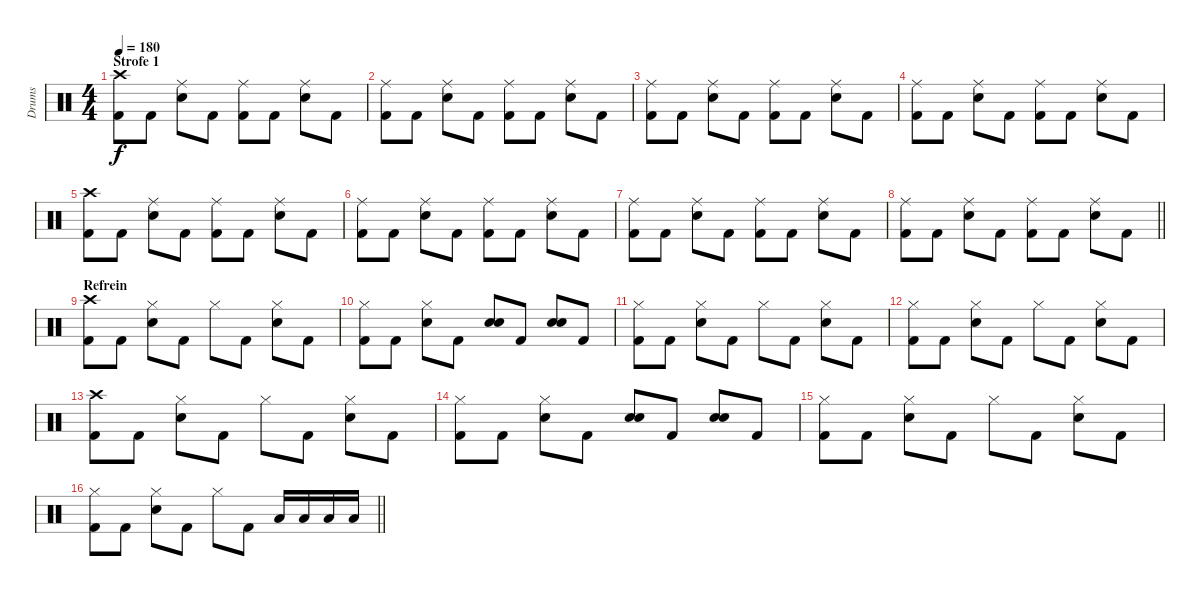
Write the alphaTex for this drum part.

\track ("Drums" "Drums") {instrument percussion}
\staff {score}
\articulation defaults
\ts (4 4)
\section ("" "Strofe 1")
\tempo 180
\clef neutral
\ks c
("Crash high (hit)" "Kick (hit) 2").8{dy f} "Kick (hit) 2".8 ("Ride (middle)" "Snare (hit) 2").8 "Kick (hit) 2".8 ("Ride (middle)" "Kick (hit) 2").8 "Kick (hit) 2".8 ("Ride (middle)" "Snare (hit) 2").8 "Kick (hit) 2".8 |
("Ride (middle)" "Kick (hit) 2").8 "Kick (hit) 2".8 ("Ride (middle)" "Snare (hit) 2").8 "Kick (hit) 2".8 ("Ride (middle)" "Kick (hit) 2").8 "Kick (hit) 2".8 ("Ride (middle)" "Snare (hit) 2").8 "Kick (hit) 2".8 |
("Ride (middle)" "Kick (hit) 2").8 "Kick (hit) 2".8 ("Ride (middle)" "Snare (hit) 2").8 "Kick (hit) 2".8 ("Ride (middle)" "Kick (hit) 2").8 "Kick (hit) 2".8 ("Ride (middle)" "Snare (hit) 2").8 "Kick (hit) 2".8 |
("Ride (middle)" "Kick (hit) 2").8 "Kick (hit) 2".8 ("Ride (middle)" "Snare (hit) 2").8 "Kick (hit) 2".8 ("Ride (middle)" "Kick (hit) 2").8 "Kick (hit) 2".8 ("Ride (middle)" "Snare (hit) 2").8 "Kick (hit) 2".8 |
("Crash high (hit)" "Kick (hit) 2").8 "Kick (hit) 2".8 ("Ride (middle)" "Snare (hit) 2").8 "Kick (hit) 2".8 ("Ride (middle)" "Kick (hit) 2").8 "Kick (hit) 2".8 ("Ride (middle)" "Snare (hit) 2").8 "Kick (hit) 2".8 |
("Ride (middle)" "Kick (hit) 2").8 "Kick (hit) 2".8 ("Ride (middle)" "Snare (hit) 2").8 "Kick (hit) 2".8 ("Ride (middle)" "Kick (hit) 2").8 "Kick (hit) 2".8 ("Ride (middle)" "Snare (hit) 2").8 "Kick (hit) 2".8 |
("Ride (middle)" "Kick (hit) 2").8 "Kick (hit) 2".8 ("Ride (middle)" "Snare (hit) 2").8 "Kick (hit) 2".8 ("Ride (middle)" "Kick (hit) 2").8 "Kick (hit) 2".8 ("Ride (middle)" "Snare (hit) 2").8 "Kick (hit) 2".8 |
\barLineRight lightlight
("Ride (middle)" "Kick (hit) 2").8 "Kick (hit) 2".8 ("Ride (middle)" "Snare (hit) 2").8 "Kick (hit) 2".8 ("Ride (middle)" "Kick (hit) 2").8 "Kick (hit) 2".8 ("Ride (middle)" "Snare (hit) 2").8 "Kick (hit) 2".8 |
\section ("" "Refrein")
("Crash high (hit)" "Kick (hit) 2").8 "Kick (hit) 2".8 ("Hi-Hat (closed)" "Snare (hit) 2").8 "Kick (hit) 2".8 "Hi-Hat (closed)".8 "Kick (hit) 2".8 ("Hi-Hat (closed)" "Snare (hit) 2").8 "Kick (hit) 2".8 |
("Hi-Hat (closed)" "Kick (hit) 2").8 "Kick (hit) 2".8 ("Hi-Hat (closed)" "Snare (hit) 2").8 "Kick (hit) 2".8 ("Snare (hit) 2" "Snare (hit) 2").8{bd 120} "Kick (hit) 2".8 ("Snare (hit) 2" "Snare (hit) 2").8{bd 120} "Kick (hit) 2".8 |
("Hi-Hat (closed)" "Kick (hit) 2").8 "Kick (hit) 2".8 ("Hi-Hat (closed)" "Snare (hit) 2").8 "Kick (hit) 2".8 "Hi-Hat (closed)".8 "Kick (hit) 2".8 ("Hi-Hat (closed)" "Snare (hit) 2").8 "Kick (hit) 2".8 |
("Hi-Hat (closed)" "Kick (hit) 2").8 "Kick (hit) 2".8 ("Hi-Hat (closed)" "Snare (hit) 2").8 "Kick (hit) 2".8 "Hi-Hat (closed)".8 "Kick (hit) 2".8 ("Hi-Hat (closed)" "Snare (hit) 2").8 "Kick (hit) 2".8 |
("Crash high (hit)" "Kick (hit) 2").8 "Kick (hit) 2".8 ("Hi-Hat (closed)" "Snare (hit) 2").8 "Kick (hit) 2".8 "Hi-Hat (closed)".8 "Kick (hit) 2".8 ("Hi-Hat (closed)" "Snare (hit) 2").8 "Kick (hit) 2".8 |
("Hi-Hat (closed)" "Kick (hit) 2").8 "Kick (hit) 2".8 ("Hi-Hat (closed)" "Snare (hit) 2").8 "Kick (hit) 2".8 ("Snare (hit) 2" "Snare (hit) 2").8{bd 120} "Kick (hit) 2".8 ("Snare (hit) 2" "Snare (hit) 2").8{bd 120} "Kick (hit) 2".8 |
("Hi-Hat (closed)" "Kick (hit) 2").8 "Kick (hit) 2".8 ("Hi-Hat (closed)" "Snare (hit) 2").8 "Kick (hit) 2".8 "Hi-Hat (closed)".8 "Kick (hit) 2".8 ("Hi-Hat (closed)" "Snare (hit) 2").8 "Kick (hit) 2".8 |
\barLineRight lightlight
("Hi-Hat (closed)" "Kick (hit) 2").8 "Kick (hit) 2".8 ("Hi-Hat (closed)" "Snare (hit) 2").8 "Kick (hit) 2".8 "Hi-Hat (closed)".8 "Kick (hit) 2".8 "Low Tom (hit)".16 "Low Tom (hit)".16 "Low Tom (hit)".16 "Low Tom (hit)".16
